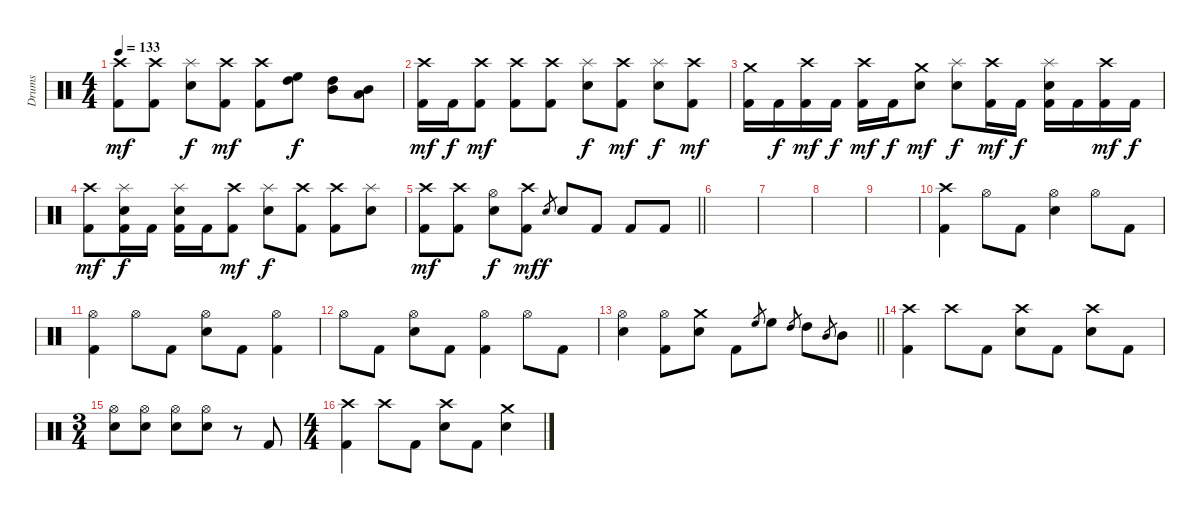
\track ("Drums" "Drums") {instrument percussion}
\staff {score}
\articulation defaults
\ts (4 4)
\tempo 133
\clef neutral
\ks c
("Crash high (hit)" "Kick (hit) 2").8{dy mf} ("Crash high (hit)" "Kick (hit) 2").8 ("Splash (hit)" "Electric Snare (hit)").8{dy f} ("Crash high (hit)" "Kick (hit) 2").8{dy mf} ("Crash high (hit)" "Kick (hit) 2").8 ("High Floor Tom (hit)" "High Tom (hit)").8{dy f} ("High Tom (hit)" "Mid Tom (hit)").8 ("Mid Tom (hit)" "Low Tom (hit)").8 |
("Crash high (hit)" "Kick (hit) 2").16{dy mf} "Kick (hit) 2".16{dy f} ("Crash high (hit)" "Kick (hit) 2").8{dy mf} ("Crash high (hit)" "Kick (hit) 2").8 ("Crash high (hit)" "Kick (hit) 2").8 ("Splash (hit)" "Electric Snare (hit)").8{dy f} ("Crash high (hit)" "Kick (hit) 2").8{dy mf} ("Splash (hit)" "Electric Snare (hit)").8{dy f} ("Crash high (hit)" "Kick (hit) 2").8{dy mf} |
("Crash medium (hit)" "Kick (hit) 2").16 "Kick (hit) 2".16{dy f} ("Crash high (hit)" "Kick (hit) 2").16{dy mf} "Kick (hit) 2".16{dy f} ("Crash high (hit)" "Kick (hit) 2").16{dy mf} "Kick (hit) 2".16{dy f} ("Crash medium (hit)" "Electric Snare (hit)").8{dy mf} ("Splash (hit)" "Electric Snare (hit)").8{dy f} ("Crash high (hit)" "Kick (hit) 2").16{dy mf} "Kick (hit) 2".16{dy f} ("Splash (hit)" "Electric Snare (hit)" "Kick (hit) 2").16 "Kick (hit) 2".16 ("Crash high (hit)" "Kick (hit) 2").16{dy mf} "Kick (hit) 2".16{dy f} |
("Crash high (hit)" "Kick (hit) 2").8{dy mf} ("Splash (hit)" "Electric Snare (hit)" "Kick (hit) 2").16{dy f} "Kick (hit) 2".16 ("Splash (hit)" "Electric Snare (hit)" "Kick (hit) 2").16 "Kick (hit) 2".16 ("Crash high (hit)" "Kick (hit) 2").8{dy mf} ("Splash (hit)" "Electric Snare (hit)").8{dy f} ("Crash high (hit)" "Kick (hit) 2").8 ("Crash high (hit)" "Kick (hit) 2").8 ("Splash (hit)" "Electric Snare (hit)").8 |
\barLineRight lightlight
("Crash high (hit)" "Kick (hit) 2").8{dy mf} ("Crash high (hit)" "Kick (hit) 2").8 ("Hi-Hat (open)" "Electric Snare (hit)").8{dy f} ("Crash high (hit)" "Kick (hit) 2").8{dy mf} "Electric Snare (hit)".8{gr dy f} "Electric Snare (hit)".8 "Kick (hit) 2".8 "Kick (hit) 2".8 "Kick (hit) 2".8 |
|
|
|
|
("Crash high (hit)" "Kick (hit) 2").4 "Hi-Hat (open)".8 "Kick (hit) 2".8 ("Hi-Hat (open)" "Electric Snare (hit)").4 "Hi-Hat (open)".8 "Kick (hit) 2".8 |
("Hi-Hat (open)" "Kick (hit) 2").4 "Hi-Hat (open)".8 "Kick (hit) 2".8 ("Hi-Hat (open)" "Electric Snare (hit)").8 "Kick (hit) 2".8 ("Hi-Hat (open)" "Kick (hit) 2").4 |
"Hi-Hat (open)".8 "Kick (hit) 2".8 ("Hi-Hat (open)" "Electric Snare (hit)").8 "Kick (hit) 2".8 ("Hi-Hat (open)" "Kick (hit) 2").4 "Hi-Hat (open)".8 "Kick (hit) 2".8 |
\barLineRight lightlight
("Hi-Hat (open)" "Electric Snare (hit)").4 ("Hi-Hat (open)" "Kick (hit) 2").8 ("Crash medium (hit)" "Electric Snare (hit)").8 "Kick (hit) 2".8 "High Floor Tom (hit)".8{gr} "High Floor Tom (hit)".8 "High Tom (hit)".8{gr} "High Tom (hit)".8 "Mid Tom (hit)".8{gr} "Mid Tom (hit)".8 |
("Crash high (hit)" "Kick (hit) 2").4 "Crash high (hit)".8 "Kick (hit) 2".8 ("Crash high (hit)" "Electric Snare (hit)").8 "Kick (hit) 2".8 ("Crash high (hit)" "Electric Snare (hit)").8 "Kick (hit) 2".8 |
\ts (3 4)
("Hi-Hat (open)" "Electric Snare (hit)").8 ("Hi-Hat (open)" "Electric Snare (hit)").8 ("Hi-Hat (open)" "Electric Snare (hit)").8 ("Hi-Hat (open)" "Electric Snare (hit)").8 r.8 "Kick (hit) 2".8 |
\ts (4 4)
("Crash high (hit)" "Kick (hit) 2").4 "Crash high (hit)".8 "Kick (hit) 2".8 ("Crash high (hit)" "Electric Snare (hit)").8 "Kick (hit) 2".8 ("Crash medium (hit)" "Electric Snare (hit)").4
